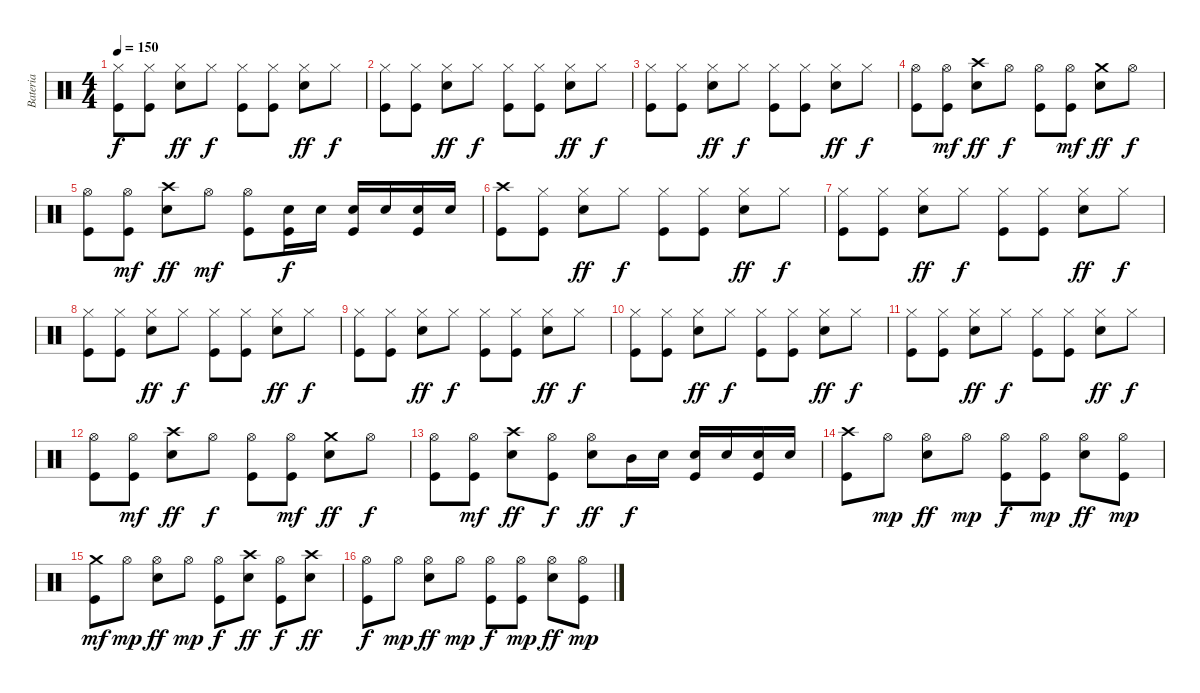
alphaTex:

\track ("Bateria" "Bateria") {instrument percussion}
\staff {score}
\articulation defaults
\ts (4 4)
\tempo 150
\clef neutral
\ks c
("Hi-Hat (closed)" "Kick (hit)").8{dy f} ("Hi-Hat (closed)" "Kick (hit)").8 ("Hi-Hat (closed)" "Electric Snare (hit)").8{dy ff} "Hi-Hat (closed)".8{dy f} ("Hi-Hat (closed)" "Kick (hit)").8 ("Hi-Hat (closed)" "Kick (hit)").8 ("Hi-Hat (closed)" "Electric Snare (hit)").8{dy ff} "Hi-Hat (closed)".8{dy f} |
("Hi-Hat (closed)" "Kick (hit)").8 ("Hi-Hat (closed)" "Kick (hit)").8 ("Hi-Hat (closed)" "Electric Snare (hit)").8{dy ff} "Hi-Hat (closed)".8{dy f} ("Hi-Hat (closed)" "Kick (hit)").8 ("Hi-Hat (closed)" "Kick (hit)").8 ("Hi-Hat (closed)" "Electric Snare (hit)").8{dy ff} "Hi-Hat (closed)".8{dy f} |
("Hi-Hat (closed)" "Kick (hit)").8 ("Hi-Hat (closed)" "Kick (hit)").8 ("Hi-Hat (closed)" "Electric Snare (hit)").8{dy ff} "Hi-Hat (closed)".8{dy f} ("Hi-Hat (closed)" "Kick (hit)").8 ("Hi-Hat (closed)" "Kick (hit)").8 ("Hi-Hat (closed)" "Electric Snare (hit)").8{dy ff} "Hi-Hat (closed)".8{dy f} |
("Hi-Hat (open)" "Kick (hit)").8 ("Hi-Hat (open)" "Kick (hit)").8{dy mf} ("Crash high (hit)" "Electric Snare (hit)").8{dy ff} "Hi-Hat (open)".8{dy f} ("Hi-Hat (open)" "Kick (hit)").8 ("Hi-Hat (open)" "Kick (hit)").8{dy mf} ("Crash medium (hit)" "Electric Snare (hit)").8{dy ff} "Hi-Hat (open)".8{dy f} |
("Hi-Hat (open)" "Kick (hit)").8 ("Hi-Hat (open)" "Kick (hit)").8{dy mf} ("Crash high (hit)" "Electric Snare (hit)").8{dy ff} "Hi-Hat (open)".8{dy mf} ("Hi-Hat (open)" "Kick (hit)").8 ("Electric Snare (hit)" "Kick (hit)").16{dy f} "Electric Snare (hit)".16 ("Electric Snare (hit)" "Kick (hit)").16 "Electric Snare (hit)".16 ("Electric Snare (hit)" "Kick (hit)").16 "Electric Snare (hit)".16 |
("Crash high (hit)" "Kick (hit)").8 ("Hi-Hat (closed)" "Kick (hit)").8 ("Hi-Hat (closed)" "Electric Snare (hit)").8{dy ff} "Hi-Hat (closed)".8{dy f} ("Hi-Hat (closed)" "Kick (hit)").8 ("Hi-Hat (closed)" "Kick (hit)").8 ("Hi-Hat (closed)" "Electric Snare (hit)").8{dy ff} "Hi-Hat (closed)".8{dy f} |
("Hi-Hat (closed)" "Kick (hit)").8 ("Hi-Hat (closed)" "Kick (hit)").8 ("Hi-Hat (closed)" "Electric Snare (hit)").8{dy ff} "Hi-Hat (closed)".8{dy f} ("Hi-Hat (closed)" "Kick (hit)").8 ("Hi-Hat (closed)" "Kick (hit)").8 ("Hi-Hat (closed)" "Electric Snare (hit)").8{dy ff} "Hi-Hat (closed)".8{dy f} |
("Hi-Hat (closed)" "Kick (hit)").8 ("Hi-Hat (closed)" "Kick (hit)").8 ("Hi-Hat (closed)" "Electric Snare (hit)").8{dy ff} "Hi-Hat (closed)".8{dy f} ("Hi-Hat (closed)" "Kick (hit)").8 ("Hi-Hat (closed)" "Kick (hit)").8 ("Hi-Hat (closed)" "Electric Snare (hit)").8{dy ff} "Hi-Hat (closed)".8{dy f} |
("Hi-Hat (closed)" "Kick (hit)").8 ("Hi-Hat (closed)" "Kick (hit)").8 ("Hi-Hat (closed)" "Electric Snare (hit)").8{dy ff} "Hi-Hat (closed)".8{dy f} ("Hi-Hat (closed)" "Kick (hit)").8 ("Hi-Hat (closed)" "Kick (hit)").8 ("Hi-Hat (closed)" "Electric Snare (hit)").8{dy ff} "Hi-Hat (closed)".8{dy f} |
("Hi-Hat (closed)" "Kick (hit)").8 ("Hi-Hat (closed)" "Kick (hit)").8 ("Hi-Hat (closed)" "Electric Snare (hit)").8{dy ff} "Hi-Hat (closed)".8{dy f} ("Hi-Hat (closed)" "Kick (hit)").8 ("Hi-Hat (closed)" "Kick (hit)").8 ("Hi-Hat (closed)" "Electric Snare (hit)").8{dy ff} "Hi-Hat (closed)".8{dy f} |
("Hi-Hat (closed)" "Kick (hit)").8 ("Hi-Hat (closed)" "Kick (hit)").8 ("Hi-Hat (closed)" "Electric Snare (hit)").8{dy ff} "Hi-Hat (closed)".8{dy f} ("Hi-Hat (closed)" "Kick (hit)").8 ("Hi-Hat (closed)" "Kick (hit)").8 ("Hi-Hat (closed)" "Electric Snare (hit)").8{dy ff} "Hi-Hat (closed)".8{dy f} |
("Hi-Hat (open)" "Kick (hit)").8 ("Hi-Hat (open)" "Kick (hit)").8{dy mf} ("Crash high (hit)" "Electric Snare (hit)").8{dy ff} "Hi-Hat (open)".8{dy f} ("Hi-Hat (open)" "Kick (hit)").8 ("Hi-Hat (open)" "Kick (hit)").8{dy mf} ("Crash medium (hit)" "Electric Snare (hit)").8{dy ff} "Hi-Hat (open)".8{dy f} |
("Hi-Hat (open)" "Kick (hit)").8 ("Hi-Hat (open)" "Kick (hit)").8{dy mf} ("Crash high (hit)" "Electric Snare (hit)").8{dy ff} ("Hi-Hat (open)" "Kick (hit)").8{dy f} ("Hi-Hat (open)" "Electric Snare (hit)").8{dy ff} "Mid Tom (hit)".16{dy f} "Electric Snare (hit)".16 ("Electric Snare (hit)" "Kick (hit)").16 "Electric Snare (hit)".16 ("Electric Snare (hit)" "Kick (hit)").16 "Electric Snare (hit)".16 |
("Crash high (hit)" "Kick (hit)").8 "Hi-Hat (open)".8{dy mp} ("Hi-Hat (open)" "Electric Snare (hit)").8{dy ff} "Hi-Hat (open)".8{dy mp} ("Hi-Hat (open)" "Kick (hit)").8{dy f} ("Hi-Hat (open)" "Kick (hit)").8{dy mp} ("Hi-Hat (open)" "Electric Snare (hit)").8{dy ff} ("Hi-Hat (open)" "Kick (hit)").8{dy mp} |
("Crash medium (hit)" "Kick (hit)").8{dy mf} "Hi-Hat (open)".8{dy mp} ("Hi-Hat (open)" "Electric Snare (hit)").8{dy ff} "Hi-Hat (open)".8{dy mp} ("Hi-Hat (open)" "Kick (hit)").8{dy f} ("Crash high (hit)" "Electric Snare (hit)").8{dy ff} ("Hi-Hat (open)" "Kick (hit)").8{dy f} ("Crash high (hit)" "Electric Snare (hit)").8{dy ff} |
("Hi-Hat (open)" "Kick (hit)").8{dy f} "Hi-Hat (open)".8{dy mp} ("Hi-Hat (open)" "Electric Snare (hit)").8{dy ff} "Hi-Hat (open)".8{dy mp} ("Hi-Hat (open)" "Kick (hit)").8{dy f} ("Hi-Hat (open)" "Kick (hit)").8{dy mp} ("Hi-Hat (open)" "Electric Snare (hit)").8{dy ff} ("Hi-Hat (open)" "Kick (hit)").8{dy mp}
